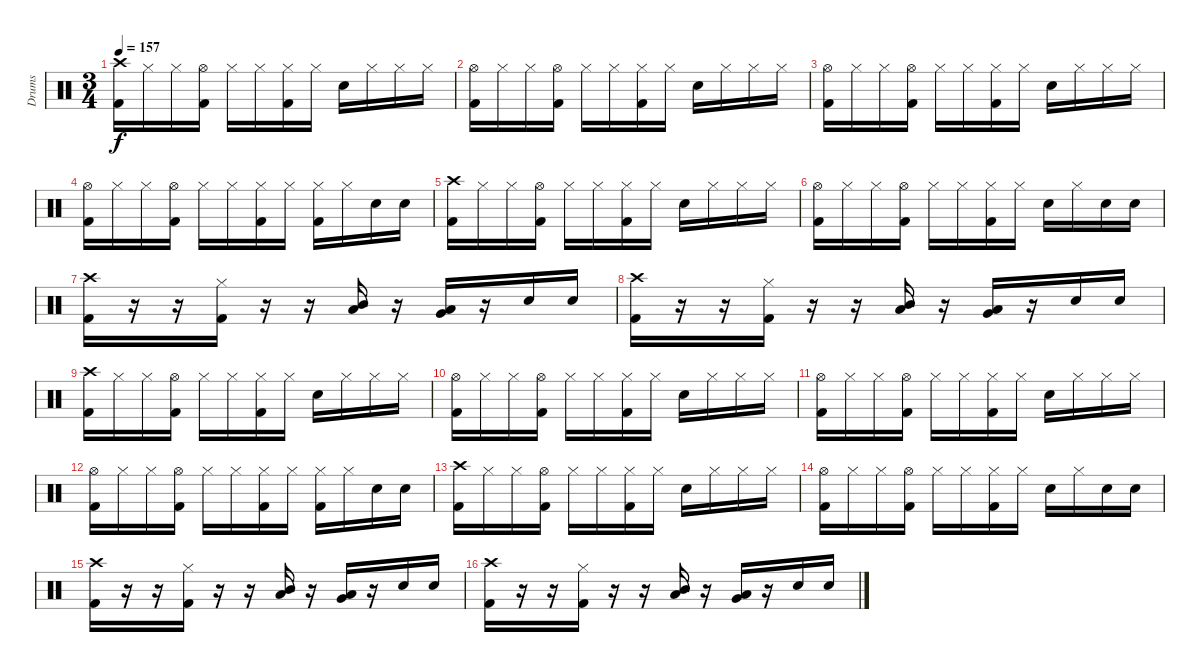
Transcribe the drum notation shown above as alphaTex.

\track ("Drums" "Drums") {instrument percussion}
\staff {score}
\articulation defaults
\ts (3 4)
\tempo 157
\clef neutral
\ks c
("Crash high (hit)" "Kick (hit) 2").16{dy f} "Hi-Hat (closed)".16 "Hi-Hat (closed)".16 ("Hi-Hat (open)" "Kick (hit) 2").16 "Hi-Hat (closed)".16 "Hi-Hat (closed)".16 ("Hi-Hat (closed)" "Kick (hit) 2").16 "Hi-Hat (closed)".16 "Snare (hit) 2".16 "Hi-Hat (closed)".16 "Hi-Hat (closed)".16 "Hi-Hat (closed)".16 |
("Hi-Hat (open)" "Kick (hit) 2").16 "Hi-Hat (closed)".16 "Hi-Hat (closed)".16 ("Hi-Hat (open)" "Kick (hit) 2").16 "Hi-Hat (closed)".16 "Hi-Hat (closed)".16 ("Hi-Hat (closed)" "Kick (hit) 2").16 "Hi-Hat (closed)".16 "Snare (hit) 2".16 "Hi-Hat (closed)".16 "Hi-Hat (closed)".16 "Hi-Hat (closed)".16 |
("Hi-Hat (open)" "Kick (hit) 2").16 "Hi-Hat (closed)".16 "Hi-Hat (closed)".16 ("Hi-Hat (open)" "Kick (hit) 2").16 "Hi-Hat (closed)".16 "Hi-Hat (closed)".16 ("Hi-Hat (closed)" "Kick (hit) 2").16 "Hi-Hat (closed)".16 "Snare (hit) 2".16 "Hi-Hat (closed)".16 "Hi-Hat (closed)".16 "Hi-Hat (closed)".16 |
("Hi-Hat (open)" "Kick (hit) 2").16 "Hi-Hat (closed)".16 "Hi-Hat (closed)".16 ("Hi-Hat (open)" "Kick (hit) 2").16 "Hi-Hat (closed)".16 "Hi-Hat (closed)".16 ("Hi-Hat (closed)" "Kick (hit) 2").16 "Hi-Hat (closed)".16 ("Hi-Hat (closed)" "Kick (hit) 2").16 "Hi-Hat (closed)".16 "Snare (hit) 2".16 "Snare (hit) 2".16 |
("Crash high (hit)" "Kick (hit) 2").16 "Hi-Hat (closed)".16 "Hi-Hat (closed)".16 ("Hi-Hat (open)" "Kick (hit) 2").16 "Hi-Hat (closed)".16 "Hi-Hat (closed)".16 ("Hi-Hat (closed)" "Kick (hit) 2").16 "Hi-Hat (closed)".16 "Snare (hit) 2".16 "Hi-Hat (closed)".16 "Hi-Hat (closed)".16 "Hi-Hat (closed)".16 |
("Hi-Hat (open)" "Kick (hit) 2").16 "Hi-Hat (closed)".16 "Hi-Hat (closed)".16 ("Hi-Hat (open)" "Kick (hit) 2").16 "Hi-Hat (closed)".16 "Hi-Hat (closed)".16 ("Hi-Hat (closed)" "Kick (hit) 2").16 "Hi-Hat (closed)".16 "Snare (hit) 2".16 "Hi-Hat (closed)".16 "Snare (hit) 2".16 "Snare (hit) 2".16 |
("Crash high (hit)" "Kick (hit) 2").16 r.16 r.16 ("Hi-Hat (closed)" "Kick (hit) 2").16 r.16 r.16 ("Low Tom (hit)" "Mid Tom (hit)").16 r.16 ("Low Tom (hit)" "Very Low Tom (hit)").16 r.16 "Snare (hit) 2".16 "Snare (hit) 2".16 |
("Crash high (hit)" "Kick (hit) 2").16 r.16 r.16 ("Hi-Hat (closed)" "Kick (hit) 2").16 r.16 r.16 ("Low Tom (hit)" "Mid Tom (hit)").16 r.16 ("Low Tom (hit)" "Very Low Tom (hit)").16 r.16 "Snare (hit) 2".16 "Snare (hit) 2".16 |
("Crash high (hit)" "Kick (hit) 2").16 "Hi-Hat (closed)".16 "Hi-Hat (closed)".16 ("Hi-Hat (open)" "Kick (hit) 2").16 "Hi-Hat (closed)".16 "Hi-Hat (closed)".16 ("Hi-Hat (closed)" "Kick (hit) 2").16 "Hi-Hat (closed)".16 "Snare (hit) 2".16 "Hi-Hat (closed)".16 "Hi-Hat (closed)".16 "Hi-Hat (closed)".16 |
("Hi-Hat (open)" "Kick (hit) 2").16 "Hi-Hat (closed)".16 "Hi-Hat (closed)".16 ("Hi-Hat (open)" "Kick (hit) 2").16 "Hi-Hat (closed)".16 "Hi-Hat (closed)".16 ("Hi-Hat (closed)" "Kick (hit) 2").16 "Hi-Hat (closed)".16 "Snare (hit) 2".16 "Hi-Hat (closed)".16 "Hi-Hat (closed)".16 "Hi-Hat (closed)".16 |
("Hi-Hat (open)" "Kick (hit) 2").16 "Hi-Hat (closed)".16 "Hi-Hat (closed)".16 ("Hi-Hat (open)" "Kick (hit) 2").16 "Hi-Hat (closed)".16 "Hi-Hat (closed)".16 ("Hi-Hat (closed)" "Kick (hit) 2").16 "Hi-Hat (closed)".16 "Snare (hit) 2".16 "Hi-Hat (closed)".16 "Hi-Hat (closed)".16 "Hi-Hat (closed)".16 |
("Hi-Hat (open)" "Kick (hit) 2").16 "Hi-Hat (closed)".16 "Hi-Hat (closed)".16 ("Hi-Hat (open)" "Kick (hit) 2").16 "Hi-Hat (closed)".16 "Hi-Hat (closed)".16 ("Hi-Hat (closed)" "Kick (hit) 2").16 "Hi-Hat (closed)".16 ("Hi-Hat (closed)" "Kick (hit) 2").16 "Hi-Hat (closed)".16 "Snare (hit) 2".16 "Snare (hit) 2".16 |
("Crash high (hit)" "Kick (hit) 2").16 "Hi-Hat (closed)".16 "Hi-Hat (closed)".16 ("Hi-Hat (open)" "Kick (hit) 2").16 "Hi-Hat (closed)".16 "Hi-Hat (closed)".16 ("Hi-Hat (closed)" "Kick (hit) 2").16 "Hi-Hat (closed)".16 "Snare (hit) 2".16 "Hi-Hat (closed)".16 "Hi-Hat (closed)".16 "Hi-Hat (closed)".16 |
("Hi-Hat (open)" "Kick (hit) 2").16 "Hi-Hat (closed)".16 "Hi-Hat (closed)".16 ("Hi-Hat (open)" "Kick (hit) 2").16 "Hi-Hat (closed)".16 "Hi-Hat (closed)".16 ("Hi-Hat (closed)" "Kick (hit) 2").16 "Hi-Hat (closed)".16 "Snare (hit) 2".16 "Hi-Hat (closed)".16 "Snare (hit) 2".16 "Snare (hit) 2".16 |
("Crash high (hit)" "Kick (hit) 2").16 r.16 r.16 ("Hi-Hat (closed)" "Kick (hit) 2").16 r.16 r.16 ("Low Tom (hit)" "Mid Tom (hit)").16 r.16 ("Low Tom (hit)" "Very Low Tom (hit)").16 r.16 "Snare (hit) 2".16 "Snare (hit) 2".16 |
("Crash high (hit)" "Kick (hit) 2").16 r.16 r.16 ("Hi-Hat (closed)" "Kick (hit) 2").16 r.16 r.16 ("Low Tom (hit)" "Mid Tom (hit)").16 r.16 ("Low Tom (hit)" "Very Low Tom (hit)").16 r.16 "Snare (hit) 2".16 "Snare (hit) 2".16
